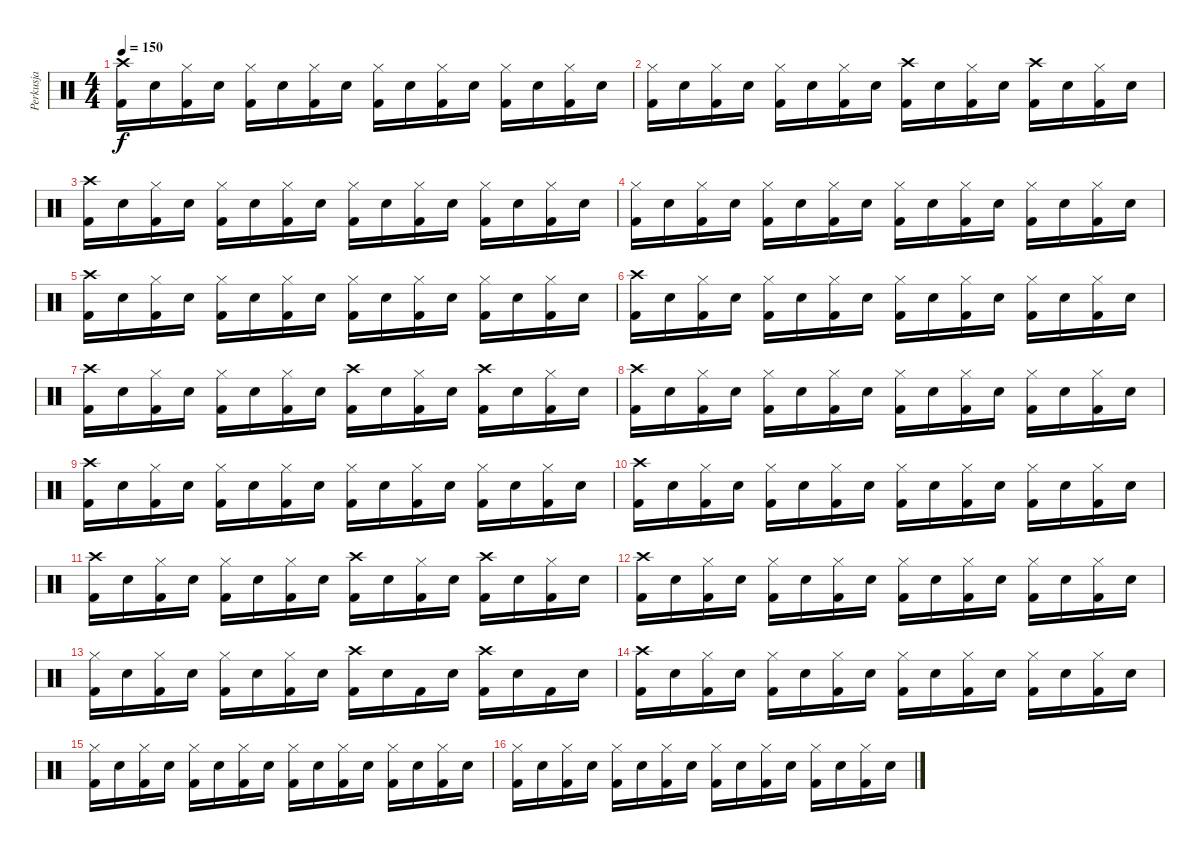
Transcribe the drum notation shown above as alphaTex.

\track ("Perkusja" "Perkusja") {instrument percussion}
\staff {score}
\articulation defaults
\ts (4 4)
\tempo 150
\clef neutral
\ks c
("Crash high (hit)" "Kick (hit) 2").16{dy f} "Snare (hit) 2".16 ("Hi-Hat (closed)" "Kick (hit) 2").16 "Snare (hit) 2".16 ("Hi-Hat (closed)" "Kick (hit) 2").16 "Snare (hit) 2".16 ("Hi-Hat (closed)" "Kick (hit) 2").16 "Snare (hit) 2".16 ("Hi-Hat (closed)" "Kick (hit) 2").16 "Snare (hit) 2".16 ("Hi-Hat (closed)" "Kick (hit) 2").16 "Snare (hit) 2".16 ("Hi-Hat (closed)" "Kick (hit) 2").16 "Snare (hit) 2".16 ("Hi-Hat (closed)" "Kick (hit) 2").16 "Snare (hit) 2".16 |
("Hi-Hat (closed)" "Kick (hit) 2").16 "Snare (hit) 2".16 ("Hi-Hat (closed)" "Kick (hit) 2").16 "Snare (hit) 2".16 ("Hi-Hat (closed)" "Kick (hit) 2").16 "Snare (hit) 2".16 ("Hi-Hat (closed)" "Kick (hit) 2").16 "Snare (hit) 2".16 ("Crash high (hit)" "Kick (hit) 2").16 "Snare (hit) 2".16 ("Hi-Hat (closed)" "Kick (hit) 2").16 "Snare (hit) 2".16 ("Crash high (hit)" "Kick (hit) 2").16 "Snare (hit) 2".16 ("Hi-Hat (closed)" "Kick (hit) 2").16 "Snare (hit) 2".16 |
("Crash high (hit)" "Kick (hit) 2").16 "Snare (hit) 2".16 ("Hi-Hat (closed)" "Kick (hit) 2").16 "Snare (hit) 2".16 ("Hi-Hat (closed)" "Kick (hit) 2").16 "Snare (hit) 2".16 ("Hi-Hat (closed)" "Kick (hit) 2").16 "Snare (hit) 2".16 ("Hi-Hat (closed)" "Kick (hit) 2").16 "Snare (hit) 2".16 ("Hi-Hat (closed)" "Kick (hit) 2").16 "Snare (hit) 2".16 ("Hi-Hat (closed)" "Kick (hit) 2").16 "Snare (hit) 2".16 ("Hi-Hat (closed)" "Kick (hit) 2").16 "Snare (hit) 2".16 |
("Hi-Hat (closed)" "Kick (hit) 2").16 "Snare (hit) 2".16 ("Hi-Hat (closed)" "Kick (hit) 2").16 "Snare (hit) 2".16 ("Hi-Hat (closed)" "Kick (hit) 2").16 "Snare (hit) 2".16 ("Hi-Hat (closed)" "Kick (hit) 2").16 "Snare (hit) 2".16 ("Hi-Hat (closed)" "Kick (hit) 2").16 "Snare (hit) 2".16 ("Hi-Hat (closed)" "Kick (hit) 2").16 "Snare (hit) 2".16 ("Hi-Hat (closed)" "Kick (hit) 2").16 "Snare (hit) 2".16 ("Hi-Hat (closed)" "Kick (hit) 2").16 "Snare (hit) 2".16 |
("Crash high (hit)" "Kick (hit) 2").16 "Snare (hit) 2".16 ("Hi-Hat (closed)" "Kick (hit) 2").16 "Snare (hit) 2".16 ("Hi-Hat (closed)" "Kick (hit) 2").16 "Snare (hit) 2".16 ("Hi-Hat (closed)" "Kick (hit) 2").16 "Snare (hit) 2".16 ("Hi-Hat (closed)" "Kick (hit) 2").16 "Snare (hit) 2".16 ("Hi-Hat (closed)" "Kick (hit) 2").16 "Snare (hit) 2".16 ("Hi-Hat (closed)" "Kick (hit) 2").16 "Snare (hit) 2".16 ("Hi-Hat (closed)" "Kick (hit) 2").16 "Snare (hit) 2".16 |
("Crash high (hit)" "Kick (hit) 2").16 "Snare (hit) 2".16 ("Hi-Hat (closed)" "Kick (hit) 2").16 "Snare (hit) 2".16 ("Hi-Hat (closed)" "Kick (hit) 2").16 "Snare (hit) 2".16 ("Hi-Hat (closed)" "Kick (hit) 2").16 "Snare (hit) 2".16 ("Hi-Hat (closed)" "Kick (hit) 2").16 "Snare (hit) 2".16 ("Hi-Hat (closed)" "Kick (hit) 2").16 "Snare (hit) 2".16 ("Hi-Hat (closed)" "Kick (hit) 2").16 "Snare (hit) 2".16 ("Hi-Hat (closed)" "Kick (hit) 2").16 "Snare (hit) 2".16 |
("Crash high (hit)" "Kick (hit) 2").16 "Snare (hit) 2".16 ("Hi-Hat (closed)" "Kick (hit) 2").16 "Snare (hit) 2".16 ("Hi-Hat (closed)" "Kick (hit) 2").16 "Snare (hit) 2".16 ("Hi-Hat (closed)" "Kick (hit) 2").16 "Snare (hit) 2".16 ("Crash high (hit)" "Kick (hit) 2").16 "Snare (hit) 2".16 ("Hi-Hat (closed)" "Kick (hit) 2").16 "Snare (hit) 2".16 ("Crash high (hit)" "Kick (hit) 2").16 "Snare (hit) 2".16 ("Hi-Hat (closed)" "Kick (hit) 2").16 "Snare (hit) 2".16 |
("Crash high (hit)" "Kick (hit) 2").16 "Snare (hit) 2".16 ("Hi-Hat (closed)" "Kick (hit) 2").16 "Snare (hit) 2".16 ("Hi-Hat (closed)" "Kick (hit) 2").16 "Snare (hit) 2".16 ("Hi-Hat (closed)" "Kick (hit) 2").16 "Snare (hit) 2".16 ("Hi-Hat (closed)" "Kick (hit) 2").16 "Snare (hit) 2".16 ("Hi-Hat (closed)" "Kick (hit) 2").16 "Snare (hit) 2".16 ("Hi-Hat (closed)" "Kick (hit) 2").16 "Snare (hit) 2".16 ("Hi-Hat (closed)" "Kick (hit) 2").16 "Snare (hit) 2".16 |
("Crash high (hit)" "Kick (hit) 2").16 "Snare (hit) 2".16 ("Hi-Hat (closed)" "Kick (hit) 2").16 "Snare (hit) 2".16 ("Hi-Hat (closed)" "Kick (hit) 2").16 "Snare (hit) 2".16 ("Hi-Hat (closed)" "Kick (hit) 2").16 "Snare (hit) 2".16 ("Hi-Hat (closed)" "Kick (hit) 2").16 "Snare (hit) 2".16 ("Hi-Hat (closed)" "Kick (hit) 2").16 "Snare (hit) 2".16 ("Hi-Hat (closed)" "Kick (hit) 2").16 "Snare (hit) 2".16 ("Hi-Hat (closed)" "Kick (hit) 2").16 "Snare (hit) 2".16 |
("Crash high (hit)" "Kick (hit) 2").16 "Snare (hit) 2".16 ("Hi-Hat (closed)" "Kick (hit) 2").16 "Snare (hit) 2".16 ("Hi-Hat (closed)" "Kick (hit) 2").16 "Snare (hit) 2".16 ("Hi-Hat (closed)" "Kick (hit) 2").16 "Snare (hit) 2".16 ("Hi-Hat (closed)" "Kick (hit) 2").16 "Snare (hit) 2".16 ("Hi-Hat (closed)" "Kick (hit) 2").16 "Snare (hit) 2".16 ("Hi-Hat (closed)" "Kick (hit) 2").16 "Snare (hit) 2".16 ("Hi-Hat (closed)" "Kick (hit) 2").16 "Snare (hit) 2".16 |
("Crash high (hit)" "Kick (hit) 2").16 "Snare (hit) 2".16 ("Hi-Hat (closed)" "Kick (hit) 2").16 "Snare (hit) 2".16 ("Hi-Hat (closed)" "Kick (hit) 2").16 "Snare (hit) 2".16 ("Hi-Hat (closed)" "Kick (hit) 2").16 "Snare (hit) 2".16 ("Crash high (hit)" "Kick (hit) 2").16 "Snare (hit) 2".16 ("Hi-Hat (closed)" "Kick (hit) 2").16 "Snare (hit) 2".16 ("Crash high (hit)" "Kick (hit) 2").16 "Snare (hit) 2".16 ("Hi-Hat (closed)" "Kick (hit) 2").16 "Snare (hit) 2".16 |
("Crash high (hit)" "Kick (hit) 2").16 "Snare (hit) 2".16 ("Hi-Hat (closed)" "Kick (hit) 2").16 "Snare (hit) 2".16 ("Hi-Hat (closed)" "Kick (hit) 2").16 "Snare (hit) 2".16 ("Hi-Hat (closed)" "Kick (hit) 2").16 "Snare (hit) 2".16 ("Hi-Hat (closed)" "Kick (hit) 2").16 "Snare (hit) 2".16 ("Hi-Hat (closed)" "Kick (hit) 2").16 "Snare (hit) 2".16 ("Hi-Hat (closed)" "Kick (hit) 2").16 "Snare (hit) 2".16 ("Hi-Hat (closed)" "Kick (hit) 2").16 "Snare (hit) 2".16 |
("Hi-Hat (closed)" "Kick (hit) 2").16 "Snare (hit) 2".16 ("Hi-Hat (closed)" "Kick (hit) 2").16 "Snare (hit) 2".16 ("Hi-Hat (closed)" "Kick (hit) 2").16 "Snare (hit) 2".16 ("Hi-Hat (closed)" "Kick (hit) 2").16 "Snare (hit) 2".16 ("Crash high (hit)" "Kick (hit) 2").16 "Snare (hit) 2".16 "Kick (hit) 2".16 "Snare (hit) 2".16 ("Crash high (hit)" "Kick (hit) 2").16 "Snare (hit) 2".16 "Kick (hit) 2".16 "Snare (hit) 2".16 |
("Crash high (hit)" "Kick (hit) 2").16 "Snare (hit) 2".16 ("Hi-Hat (closed)" "Kick (hit) 2").16 "Snare (hit) 2".16 ("Hi-Hat (closed)" "Kick (hit) 2").16 "Snare (hit) 2".16 ("Hi-Hat (closed)" "Kick (hit) 2").16 "Snare (hit) 2".16 ("Hi-Hat (closed)" "Kick (hit) 2").16 "Snare (hit) 2".16 ("Hi-Hat (closed)" "Kick (hit) 2").16 "Snare (hit) 2".16 ("Hi-Hat (closed)" "Kick (hit) 2").16 "Snare (hit) 2".16 ("Hi-Hat (closed)" "Kick (hit) 2").16 "Snare (hit) 2".16 |
("Hi-Hat (closed)" "Kick (hit) 2").16 "Snare (hit) 2".16 ("Hi-Hat (closed)" "Kick (hit) 2").16 "Snare (hit) 2".16 ("Hi-Hat (closed)" "Kick (hit) 2").16 "Snare (hit) 2".16 ("Hi-Hat (closed)" "Kick (hit) 2").16 "Snare (hit) 2".16 ("Hi-Hat (closed)" "Kick (hit) 2").16 "Snare (hit) 2".16 ("Hi-Hat (closed)" "Kick (hit) 2").16 "Snare (hit) 2".16 ("Hi-Hat (closed)" "Kick (hit) 2").16 "Snare (hit) 2".16 ("Hi-Hat (closed)" "Kick (hit) 2").16 "Snare (hit) 2".16 |
("Hi-Hat (closed)" "Kick (hit) 2").16 "Snare (hit) 2".16 ("Hi-Hat (closed)" "Kick (hit) 2").16 "Snare (hit) 2".16 ("Hi-Hat (closed)" "Kick (hit) 2").16 "Snare (hit) 2".16 ("Hi-Hat (closed)" "Kick (hit) 2").16 "Snare (hit) 2".16 ("Hi-Hat (closed)" "Kick (hit) 2").16 "Snare (hit) 2".16 ("Hi-Hat (closed)" "Kick (hit) 2").16 "Snare (hit) 2".16 ("Hi-Hat (closed)" "Kick (hit) 2").16 "Snare (hit) 2".16 ("Hi-Hat (closed)" "Kick (hit) 2").16 "Snare (hit) 2".16
